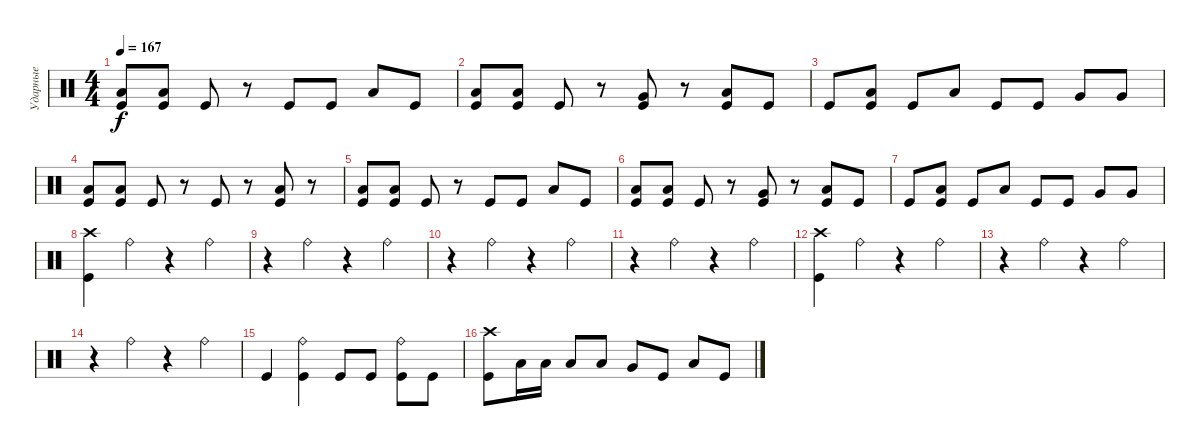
\track ("Ударные" "Ударные") {instrument percussion}
\staff {score}
\articulation defaults
\ts (4 4)
\tempo 167
\clef neutral
\ks c
("Low Tom (hit)" "Kick (hit)").8{dy f} ("Low Tom (hit)" "Kick (hit)").8 "Kick (hit)".8 r.8 "Kick (hit)".8 "Kick (hit)".8 "Low Tom (hit)".8 "Kick (hit)".8 |
("Low Tom (hit)" "Kick (hit)").8 ("Low Tom (hit)" "Kick (hit)").8 "Kick (hit)".8 r.8 ("Very Low Tom (hit)" "Kick (hit)").8 r.8 ("Low Tom (hit)" "Kick (hit)").8 "Kick (hit)".8 |
"Kick (hit)".8 ("Low Tom (hit)" "Kick (hit)").8 "Kick (hit)".8 "Low Tom (hit)".8 "Kick (hit)".8 "Kick (hit)".8 "Very Low Tom (hit)".8 "Very Low Tom (hit)".8 |
("Low Tom (hit)" "Kick (hit)").8 ("Low Tom (hit)" "Kick (hit)").8 "Kick (hit)".8 r.8 "Kick (hit)".8 r.8 ("Low Tom (hit)" "Kick (hit)").8 r.8 |
("Low Tom (hit)" "Kick (hit)").8 ("Low Tom (hit)" "Kick (hit)").8 "Kick (hit)".8 r.8 "Kick (hit)".8 "Kick (hit)".8 "Low Tom (hit)".8 "Kick (hit)".8 |
("Low Tom (hit)" "Kick (hit)").8 ("Low Tom (hit)" "Kick (hit)").8 "Kick (hit)".8 r.8 ("Very Low Tom (hit)" "Kick (hit)").8 r.8 ("Low Tom (hit)" "Kick (hit)").8 "Kick (hit)".8 |
"Kick (hit)".8 ("Low Tom (hit)" "Kick (hit)").8 "Kick (hit)".8 "Low Tom (hit)".8 "Kick (hit)".8 "Kick (hit)".8 "Very Low Tom (hit)".8 "Very Low Tom (hit)".8 |
("Crash high (hit)" "Kick (hit)").4 "Ride (bell)".4 r.4 "Ride (bell)".4 |
r.4 "Ride (bell)".4 r.4 "Ride (bell)".4 |
r.4 "Ride (bell)".4 r.4 "Ride (bell)".4 |
r.4 "Ride (bell)".4 r.4 "Ride (bell)".4 |
("Crash high (hit)" "Kick (hit)").4 "Ride (bell)".4 r.4 "Ride (bell)".4 |
r.4 "Ride (bell)".4 r.4 "Ride (bell)".4 |
r.4 "Ride (bell)".4 r.4 "Ride (bell)".4 |
"Kick (hit)".4 ("Ride (bell)" "Kick (hit)").4 "Kick (hit)".8 "Kick (hit)".8 ("Ride (bell)" "Kick (hit)").8 "Kick (hit)".8 |
("Crash high (hit)" "Kick (hit)").8 "Low Tom (hit)".16 "Low Tom (hit)".16 "Low Tom (hit)".8 "Low Tom (hit)".8 "Very Low Tom (hit)".8 "Kick (hit)".8 "Low Tom (hit)".8 "Kick (hit)".8
